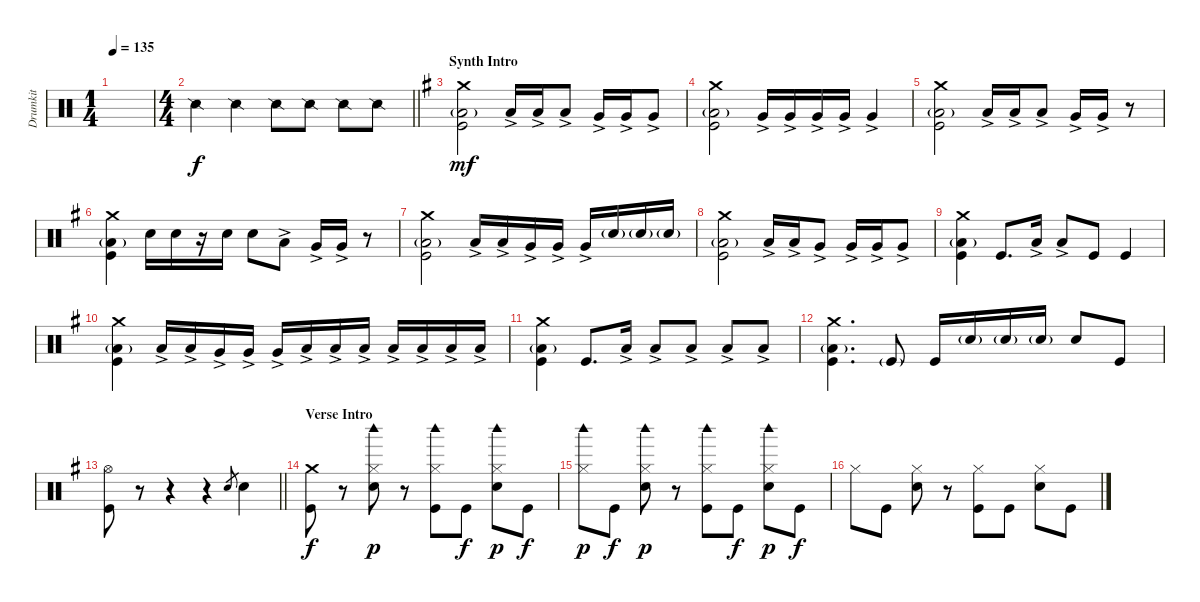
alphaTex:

\track ("Drumkit" "Drumkit") {instrument percussion}
\staff {score}
\articulation defaults
\ts (1 4)
\tempo 135
\clef neutral
\ks c
|
\ts (4 4)
\barLineRight lightlight "Snare (side stick) 2".4 "Snare (side stick) 2".4 "Snare (side stick) 2".8 "Snare (side stick) 2".8 "Snare (side stick) 2".8 "Snare (side stick) 2".8
|
\section ("" "Synth Intro")
\ks g
("Crash medium (hit)" "Kick (hit)" "Low Floor Tom (hit)"{g}).2{dy mf} "Low Tom (hit)"{ac}.16 "Low Tom (hit)"{ac}.16 "Low Tom (hit)"{ac}.8 "Very Low Tom (hit)"{ac}.16 "Very Low Tom (hit)"{ac}.16 "Very Low Tom (hit)"{ac}.8 |
("Crash medium (hit)" "Kick (hit)" "Low Floor Tom (hit)"{g}).2 "Very Low Tom (hit)"{ac}.16 "Very Low Tom (hit)"{ac}.16 "Very Low Tom (hit)"{ac}.16 "Very Low Tom (hit)"{ac}.16 "Very Low Tom (hit)"{ac}.4 |
("Crash medium (hit)" "Kick (hit)" "Low Floor Tom (hit)"{g}).2 "Low Tom (hit)"{ac}.16 "Low Tom (hit)"{ac}.16 "Low Tom (hit)"{ac}.8 "Very Low Tom (hit)"{ac}.16 "Very Low Tom (hit)"{ac}.16 r.8 |
("Crash medium (hit)" "Kick (hit)" "Low Floor Tom (hit)"{g}).4 "Snare (hit) 2".16 "Snare (hit) 2".16 r.16 "Snare (hit) 2".16 "Snare (hit) 2".8 "Low Tom (hit)"{ac}.8 "Very Low Tom (hit)"{ac}.16 "Very Low Tom (hit)"{ac}.16 r.8 |
("Crash medium (hit)" "Kick (hit)" "Low Floor Tom (hit)"{g}).2 "Low Tom (hit)"{ac}.16 "Low Tom (hit)"{ac}.16 "Very Low Tom (hit)"{ac}.16 "Very Low Tom (hit)"{ac}.16 "Very Low Tom (hit)"{ac}.16 "Snare (hit) 2"{g}.16 "Snare (hit) 2"{g}.16 "Snare (hit) 2"{g}.16 |
("Crash medium (hit)" "Kick (hit)" "Low Floor Tom (hit)"{g}).2 "Low Tom (hit)"{ac}.16 "Low Tom (hit)"{ac}.16 "Very Low Tom (hit)"{ac}.8 "Very Low Tom (hit)"{ac}.16 "Very Low Tom (hit)"{ac}.16 "Very Low Tom (hit)"{ac}.8 |
("Crash medium (hit)" "Kick (hit)" "Low Floor Tom (hit)"{g}).4 "Kick (hit)".8{d} "Low Tom (hit)"{ac}.16 "Low Tom (hit)"{ac}.8 "Kick (hit)".8 "Kick (hit)".4 |
("Crash medium (hit)" "Kick (hit)" "Low Floor Tom (hit)"{g}).4 "Low Tom (hit)"{ac}.16 "Low Tom (hit)"{ac}.16 "Very Low Tom (hit)"{ac}.16 "Very Low Tom (hit)"{ac}.16 "Very Low Tom (hit)"{ac}.16 "Low Floor Tom (hit)"{ac}.16 "Low Floor Tom (hit)"{ac}.16 "Low Floor Tom (hit)"{ac}.16 "Low Floor Tom (hit)"{ac}.16 "Low Floor Tom (hit)"{ac}.16 "Low Floor Tom (hit)"{ac}.16 "Low Floor Tom (hit)"{ac}.16 |
("Crash medium (hit)" "Kick (hit)" "Low Floor Tom (hit)"{g}).4 "Kick (hit)".8{d} "Low Tom (hit)"{ac}.16 "Low Tom (hit)"{ac}.8 "Low Floor Tom (hit)"{ac}.8 "Low Floor Tom (hit)"{ac}.8 "Low Floor Tom (hit)"{ac}.8 |
("Crash medium (hit)" "Kick (hit)" "Low Floor Tom (hit)"{g}).4{d} "Kick (hit)"{g}.8 "Kick (hit)".16 "Snare (hit) 2"{g}.16 "Snare (hit) 2"{g}.16 "Snare (hit) 2"{g}.16 "Snare (hit) 2".8 "Kick (hit)".8 |
\barLineRight lightlight
("Kick (hit)" "Hi-Hat (open)").8 r.8 r.4 r.4 "Snare (hit)".8{gr} "Snare (hit) 2".4 |
\section ("" "Verse Intro")
("Crash medium (hit)" "Kick (hit)").8{dy f} r.8 ("Hi-Hat (closed)" "Woodblock high (hit)" "Snare (hit) 2").8{dy p} r.8 ("Hi-Hat (closed)" "Woodblock high (hit)" "Kick (hit)").8 "Kick (hit)".8{dy f} ("Hi-Hat (closed)" "Woodblock high (hit)" "Snare (hit) 2").8{dy p} "Kick (hit)".8{dy f} |
("Hi-Hat (closed)" "Woodblock high (hit)").8{dy p} "Kick (hit)".8{dy f} ("Hi-Hat (closed)" "Woodblock high (hit)" "Snare (hit) 2").8{dy p} r.8 ("Hi-Hat (closed)" "Woodblock high (hit)" "Kick (hit)").8 "Kick (hit)".8{dy f} ("Hi-Hat (closed)" "Woodblock high (hit)" "Snare (hit) 2").8{dy p} "Kick (hit)".8{dy f} |
"Hi-Hat (closed)".8 "Kick (hit)".8 ("Hi-Hat (closed)" "Snare (hit) 2").8 r.8 ("Hi-Hat (closed)" "Kick (hit)").8 "Kick (hit)".8 ("Hi-Hat (closed)" "Snare (hit) 2").8 "Kick (hit)".8
